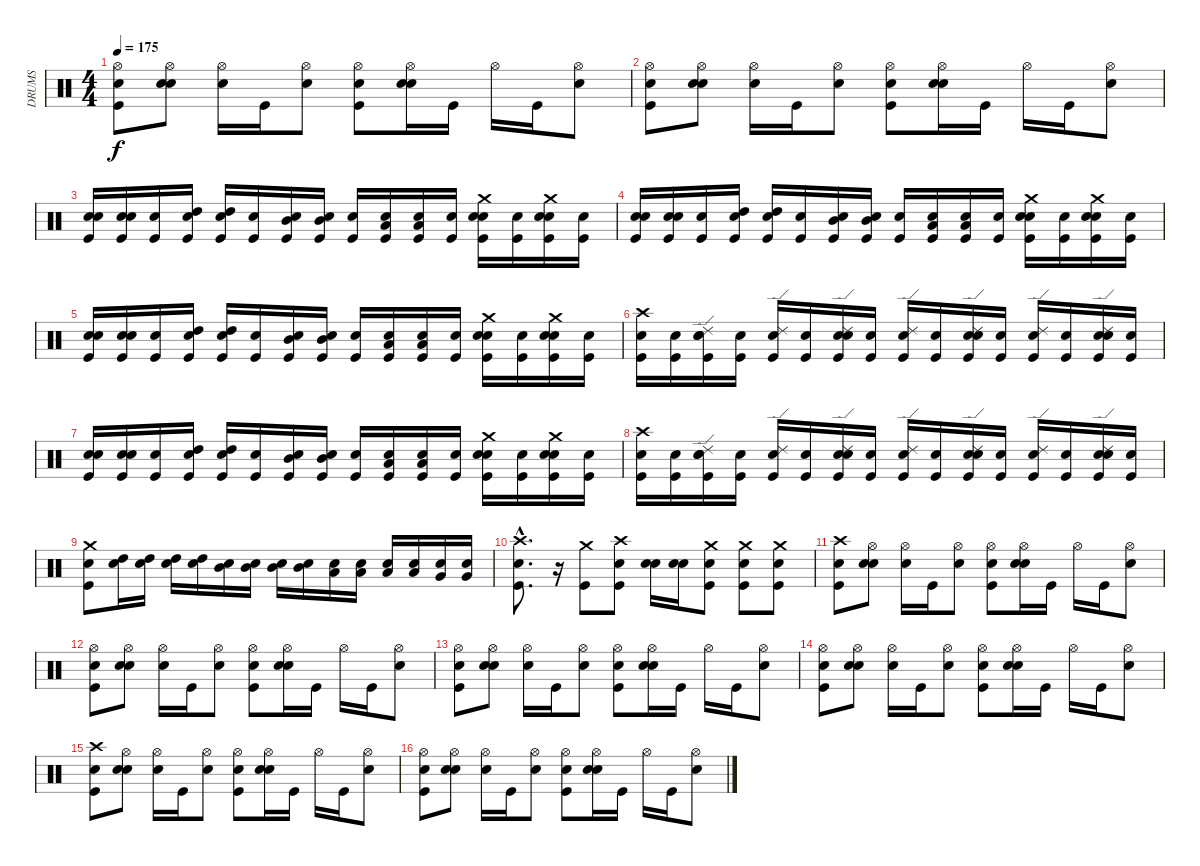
\track ("DRUMS" "DRUMS") {instrument percussion}
\staff {score}
\articulation defaults
\ts (4 4)
\tempo 175
\clef neutral
\ks c
("Snare (hit)" "Hi-Hat (open)" "Kick (hit)").8{dy f} ("Snare (hit)" "Hi-Hat (open)" "Snare (hit) 2").8 ("Snare (hit)" "Hi-Hat (open)").16 "Kick (hit)".16 ("Hi-Hat (open)" "Snare (hit) 2").8 ("Snare (hit)" "Hi-Hat (open)" "Kick (hit)").8 ("Snare (hit)" "Hi-Hat (open)" "Snare (hit) 2").16 "Kick (hit)".16 "Hi-Hat (open)".16 "Kick (hit)".16 ("Hi-Hat (open)" "Snare (hit) 2").8 |
("Snare (hit)" "Hi-Hat (open)" "Kick (hit)").8 ("Snare (hit)" "Hi-Hat (open)" "Snare (hit) 2").8 ("Snare (hit)" "Hi-Hat (open)").16 "Kick (hit)".16 ("Hi-Hat (open)" "Snare (hit) 2").8 ("Snare (hit)" "Hi-Hat (open)" "Kick (hit)").8 ("Snare (hit)" "Hi-Hat (open)" "Snare (hit) 2").16 "Kick (hit)".16 "Hi-Hat (open)".16 "Kick (hit)".16 ("Hi-Hat (open)" "Snare (hit) 2").8 |
("Snare (hit)" "Kick (hit)" "Snare (hit) 2").16 ("Snare (hit)" "Kick (hit)" "Snare (hit) 2").16 ("Snare (hit)" "Kick (hit)").16 ("Snare (hit)" "Kick (hit)" "High Tom (hit)").16 ("Snare (hit)" "Kick (hit)" "High Tom (hit)").16 ("Snare (hit)" "Kick (hit)").16 ("Snare (hit)" "Kick (hit)" "Mid Tom (hit)").16 ("Snare (hit)" "Kick (hit)" "Mid Tom (hit)").16 ("Snare (hit)" "Kick (hit)").16 ("Snare (hit)" "Kick (hit)" "Low Tom (hit)").16 ("Snare (hit)" "Kick (hit)" "Low Tom (hit)").16 ("Snare (hit)" "Kick (hit)").16 ("Snare (hit)" "Kick (hit)" "Snare (hit) 2" "Crash medium (hit)").16 ("Snare (hit)" "Kick (hit)").16 ("Snare (hit)" "Kick (hit)" "Snare (hit) 2" "Crash medium (hit)").16 ("Snare (hit)" "Kick (hit)").16 |
("Snare (hit)" "Kick (hit)" "Snare (hit) 2").16 ("Snare (hit)" "Kick (hit)" "Snare (hit) 2").16 ("Snare (hit)" "Kick (hit)").16 ("Snare (hit)" "Kick (hit)" "High Tom (hit)").16 ("Snare (hit)" "Kick (hit)" "High Tom (hit)").16 ("Snare (hit)" "Kick (hit)").16 ("Snare (hit)" "Kick (hit)" "Mid Tom (hit)").16 ("Snare (hit)" "Kick (hit)" "Mid Tom (hit)").16 ("Snare (hit)" "Kick (hit)").16 ("Snare (hit)" "Kick (hit)" "Low Tom (hit)").16 ("Snare (hit)" "Kick (hit)" "Low Tom (hit)").16 ("Snare (hit)" "Kick (hit)").16 ("Snare (hit)" "Kick (hit)" "Snare (hit) 2" "Crash medium (hit)").16 ("Snare (hit)" "Kick (hit)").16 ("Snare (hit)" "Kick (hit)" "Snare (hit) 2" "Crash medium (hit)").16 ("Snare (hit)" "Kick (hit)").16 |
("Snare (hit)" "Kick (hit)" "Snare (hit) 2").16 ("Snare (hit)" "Kick (hit)" "Snare (hit) 2").16 ("Snare (hit)" "Kick (hit)").16 ("Snare (hit)" "Kick (hit)" "High Tom (hit)").16 ("Snare (hit)" "Kick (hit)" "High Tom (hit)").16 ("Snare (hit)" "Kick (hit)").16 ("Snare (hit)" "Kick (hit)" "Mid Tom (hit)").16 ("Snare (hit)" "Kick (hit)" "Mid Tom (hit)").16 ("Snare (hit)" "Kick (hit)").16 ("Snare (hit)" "Kick (hit)" "Low Tom (hit)").16 ("Snare (hit)" "Kick (hit)" "Low Tom (hit)").16 ("Snare (hit)" "Kick (hit)").16 ("Snare (hit)" "Kick (hit)" "Snare (hit) 2" "Crash medium (hit)").16 ("Snare (hit)" "Kick (hit)").16 ("Snare (hit)" "Kick (hit)" "Snare (hit) 2" "Crash medium (hit)").16 ("Snare (hit)" "Kick (hit)").16 |
("Snare (hit)" "Crash high (hit)" "Kick (hit)").16 ("Snare (hit)" "Kick (hit)").16 ("Snare (hit)" "Ride (edge) 2" "Snare (hit) 2" "Kick (hit)").16 ("Snare (hit)" "Kick (hit)").16 ("Snare (hit)" "Ride (edge) 2" "Kick (hit)").16 ("Snare (hit)" "Kick (hit)").16 ("Snare (hit)" "Ride (edge) 2" "Snare (hit) 2" "Kick (hit)").16 ("Snare (hit)" "Kick (hit)").16 ("Snare (hit)" "Ride (edge) 2" "Kick (hit)").16 ("Snare (hit)" "Kick (hit)").16 ("Snare (hit)" "Ride (edge) 2" "Snare (hit) 2" "Kick (hit)").16 ("Snare (hit)" "Kick (hit)").16 ("Snare (hit)" "Ride (edge) 2" "Kick (hit)").16 ("Snare (hit)" "Kick (hit)").16 ("Snare (hit)" "Ride (edge) 2" "Snare (hit) 2" "Kick (hit)").16 ("Snare (hit)" "Kick (hit)").16 |
("Snare (hit)" "Kick (hit)" "Snare (hit) 2").16 ("Snare (hit)" "Kick (hit)" "Snare (hit) 2").16 ("Snare (hit)" "Kick (hit)").16 ("Snare (hit)" "Kick (hit)" "High Tom (hit)").16 ("Snare (hit)" "Kick (hit)" "High Tom (hit)").16 ("Snare (hit)" "Kick (hit)").16 ("Snare (hit)" "Kick (hit)" "Mid Tom (hit)").16 ("Snare (hit)" "Kick (hit)" "Mid Tom (hit)").16 ("Snare (hit)" "Kick (hit)").16 ("Snare (hit)" "Kick (hit)" "Low Tom (hit)").16 ("Snare (hit)" "Kick (hit)" "Low Tom (hit)").16 ("Snare (hit)" "Kick (hit)").16 ("Snare (hit)" "Kick (hit)" "Snare (hit) 2" "Crash medium (hit)").16 ("Snare (hit)" "Kick (hit)").16 ("Snare (hit)" "Kick (hit)" "Snare (hit) 2" "Crash medium (hit)").16 ("Snare (hit)" "Kick (hit)").16 |
("Snare (hit)" "Crash high (hit)" "Kick (hit)").16 ("Snare (hit)" "Kick (hit)").16 ("Snare (hit)" "Ride (edge) 2" "Snare (hit) 2" "Kick (hit)").16 ("Snare (hit)" "Kick (hit)").16 ("Snare (hit)" "Ride (edge) 2" "Kick (hit)").16 ("Snare (hit)" "Kick (hit)").16 ("Snare (hit)" "Ride (edge) 2" "Snare (hit) 2" "Kick (hit)").16 ("Snare (hit)" "Kick (hit)").16 ("Snare (hit)" "Ride (edge) 2" "Kick (hit)").16 ("Snare (hit)" "Kick (hit)").16 ("Snare (hit)" "Ride (edge) 2" "Snare (hit) 2" "Kick (hit)").16 ("Snare (hit)" "Kick (hit)").16 ("Snare (hit)" "Ride (edge) 2" "Kick (hit)").16 ("Snare (hit)" "Kick (hit)").16 ("Snare (hit)" "Ride (edge) 2" "Snare (hit) 2" "Kick (hit)").16 ("Snare (hit)" "Kick (hit)").16 |
("Snare (hit)" "Crash medium (hit)" "Kick (hit)").8 ("Snare (hit)" "High Tom (hit)").16 ("Snare (hit)" "High Tom (hit)").16 ("Snare (hit)" "High Tom (hit)").16 ("Snare (hit)" "High Tom (hit)").16 ("Snare (hit)" "Mid Tom (hit)").16 ("Snare (hit)" "Mid Tom (hit)").16 ("Snare (hit)" "Mid Tom (hit)").16 ("Snare (hit)" "Mid Tom (hit)").16 ("Snare (hit)" "Low Tom (hit)").16 ("Snare (hit)" "Low Tom (hit)").16 ("Snare (hit)" "Low Tom (hit)").16 ("Snare (hit)" "Low Tom (hit)").16 ("Snare (hit)" "Very Low Tom (hit)").16 ("Snare (hit)" "Very Low Tom (hit)").16 |
("Snare (hit)"{hac} "Kick (hit)"{hac} "Crash high (hit)"{hac}).8{d} r.16 ("Kick (hit)" "Crash medium (hit)").8 ("Snare (hit)" "Kick (hit)" "Crash high (hit)").8 ("Snare (hit)" "Snare (hit) 2").16 ("Snare (hit)" "Snare (hit) 2").16 ("Snare (hit)" "Kick (hit)" "Crash medium (hit)").8 ("Snare (hit)" "Kick (hit)" "Crash medium (hit)").8 ("Snare (hit)" "Kick (hit)" "Crash medium (hit)").8 |
("Snare (hit)" "Crash high (hit)" "Kick (hit)").8 ("Snare (hit)" "Hi-Hat (open)" "Snare (hit) 2").8 ("Snare (hit)" "Hi-Hat (open)").16 "Kick (hit)".16 ("Hi-Hat (open)" "Snare (hit) 2").8 ("Snare (hit)" "Hi-Hat (open)" "Kick (hit)").8 ("Snare (hit)" "Hi-Hat (open)" "Snare (hit) 2").16 "Kick (hit)".16 "Hi-Hat (open)".16 "Kick (hit)".16 ("Hi-Hat (open)" "Snare (hit) 2").8 |
("Snare (hit)" "Kick (hit)" "Hi-Hat (open)").8 ("Snare (hit)" "Snare (hit) 2" "Hi-Hat (open)").8 ("Snare (hit)" "Hi-Hat (open)").16 "Kick (hit)".16 ("Snare (hit) 2" "Hi-Hat (open)").8 ("Snare (hit)" "Kick (hit)" "Hi-Hat (open)").8 ("Snare (hit)" "Snare (hit) 2" "Hi-Hat (open)").16 "Kick (hit)".16 "Hi-Hat (open)".16 "Kick (hit)".16 ("Snare (hit) 2" "Hi-Hat (open)").8 |
("Snare (hit)" "Kick (hit)" "Hi-Hat (open)").8 ("Snare (hit)" "Snare (hit) 2" "Hi-Hat (open)").8 ("Snare (hit)" "Hi-Hat (open)").16 "Kick (hit)".16 ("Snare (hit) 2" "Hi-Hat (open)").8 ("Snare (hit)" "Kick (hit)" "Hi-Hat (open)").8 ("Snare (hit)" "Snare (hit) 2" "Hi-Hat (open)").16 "Kick (hit)".16 "Hi-Hat (open)".16 "Kick (hit)".16 ("Snare (hit) 2" "Hi-Hat (open)").8 |
("Snare (hit)" "Kick (hit)" "Hi-Hat (open)").8 ("Snare (hit)" "Snare (hit) 2" "Hi-Hat (open)").8 ("Snare (hit)" "Hi-Hat (open)").16 "Kick (hit)".16 ("Snare (hit) 2" "Hi-Hat (open)").8 ("Snare (hit)" "Kick (hit)" "Hi-Hat (open)").8 ("Snare (hit)" "Snare (hit) 2" "Hi-Hat (open)").16 "Kick (hit)".16 "Hi-Hat (open)".16 "Kick (hit)".16 ("Snare (hit) 2" "Hi-Hat (open)").8 |
("Snare (hit)" "Crash high (hit)" "Kick (hit)").8 ("Snare (hit)" "Hi-Hat (open)" "Snare (hit) 2").8 ("Snare (hit)" "Hi-Hat (open)").16 "Kick (hit)".16 ("Hi-Hat (open)" "Snare (hit) 2").8 ("Snare (hit)" "Hi-Hat (open)" "Kick (hit)").8 ("Snare (hit)" "Hi-Hat (open)" "Snare (hit) 2").16 "Kick (hit)".16 "Hi-Hat (open)".16 "Kick (hit)".16 ("Hi-Hat (open)" "Snare (hit) 2").8 |
("Snare (hit)" "Kick (hit)" "Hi-Hat (open)").8 ("Snare (hit)" "Snare (hit) 2" "Hi-Hat (open)").8 ("Snare (hit)" "Hi-Hat (open)").16 "Kick (hit)".16 ("Snare (hit) 2" "Hi-Hat (open)").8 ("Snare (hit)" "Kick (hit)" "Hi-Hat (open)").8 ("Snare (hit)" "Snare (hit) 2" "Hi-Hat (open)").16 "Kick (hit)".16 "Hi-Hat (open)".16 "Kick (hit)".16 ("Snare (hit) 2" "Hi-Hat (open)").8
